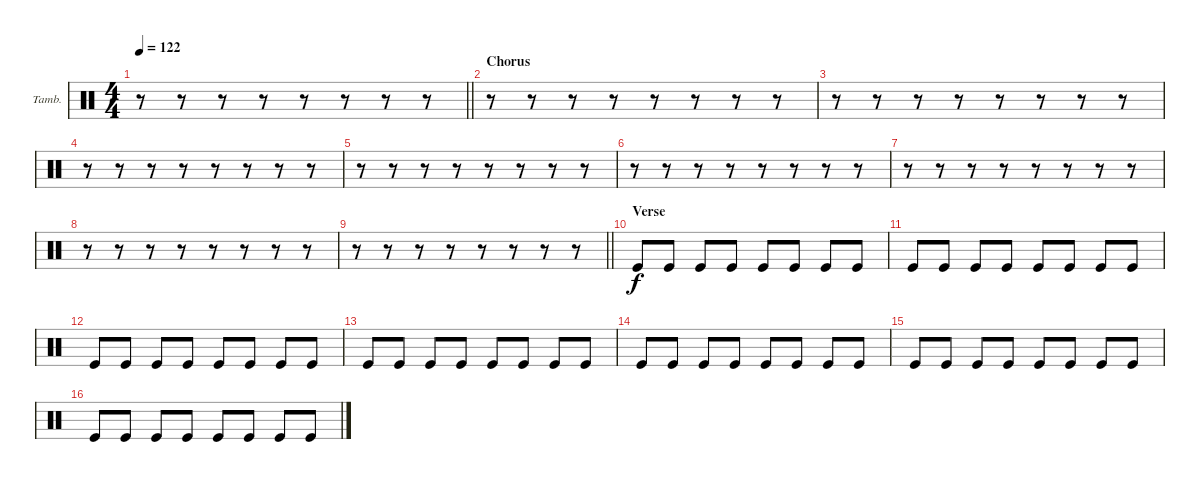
\bracketExtendMode groupsimilarinstruments
\firstSystemTrackNameOrientation horizontal
\otherSystemsTrackNameOrientation horizontal
\track ("Tambourine" "Tamb.") {instrument percussion}
\staff {score}
\articulation defaults
\ts (4 4)
\tempo 122
\clef neutral
\barLineRight lightlight
\ks c
r.8{dy f} r.8 r.8 r.8 r.8 r.8 r.8 r.8 |
\section ("" "Chorus")
r.8 r.8 r.8 r.8 r.8 r.8 r.8 r.8 |
r.8 r.8 r.8 r.8 r.8 r.8 r.8 r.8 |
r.8 r.8 r.8 r.8 r.8 r.8 r.8 r.8 |
r.8 r.8 r.8 r.8 r.8 r.8 r.8 r.8 |
r.8 r.8 r.8 r.8 r.8 r.8 r.8 r.8 |
r.8 r.8 r.8 r.8 r.8 r.8 r.8 r.8 |
r.8 r.8 r.8 r.8 r.8 r.8 r.8 r.8 |
\barLineRight lightlight
r.8 r.8 r.8 r.8 r.8 r.8 r.8 r.8 |
\section ("" "Verse")
"Kick (hit)".8 "Kick (hit)".8 "Kick (hit)".8 "Kick (hit)".8 "Kick (hit)".8 "Kick (hit)".8 "Kick (hit)".8 "Kick (hit)".8 |
"Kick (hit)".8 "Kick (hit)".8 "Kick (hit)".8 "Kick (hit)".8 "Kick (hit)".8 "Kick (hit)".8 "Kick (hit)".8 "Kick (hit)".8 |
"Kick (hit)".8 "Kick (hit)".8 "Kick (hit)".8 "Kick (hit)".8 "Kick (hit)".8 "Kick (hit)".8 "Kick (hit)".8 "Kick (hit)".8 |
"Kick (hit)".8 "Kick (hit)".8 "Kick (hit)".8 "Kick (hit)".8 "Kick (hit)".8 "Kick (hit)".8 "Kick (hit)".8 "Kick (hit)".8 |
"Kick (hit)".8 "Kick (hit)".8 "Kick (hit)".8 "Kick (hit)".8 "Kick (hit)".8 "Kick (hit)".8 "Kick (hit)".8 "Kick (hit)".8 |
"Kick (hit)".8 "Kick (hit)".8 "Kick (hit)".8 "Kick (hit)".8 "Kick (hit)".8 "Kick (hit)".8 "Kick (hit)".8 "Kick (hit)".8 |
"Kick (hit)".8 "Kick (hit)".8 "Kick (hit)".8 "Kick (hit)".8 "Kick (hit)".8 "Kick (hit)".8 "Kick (hit)".8 "Kick (hit)".8
